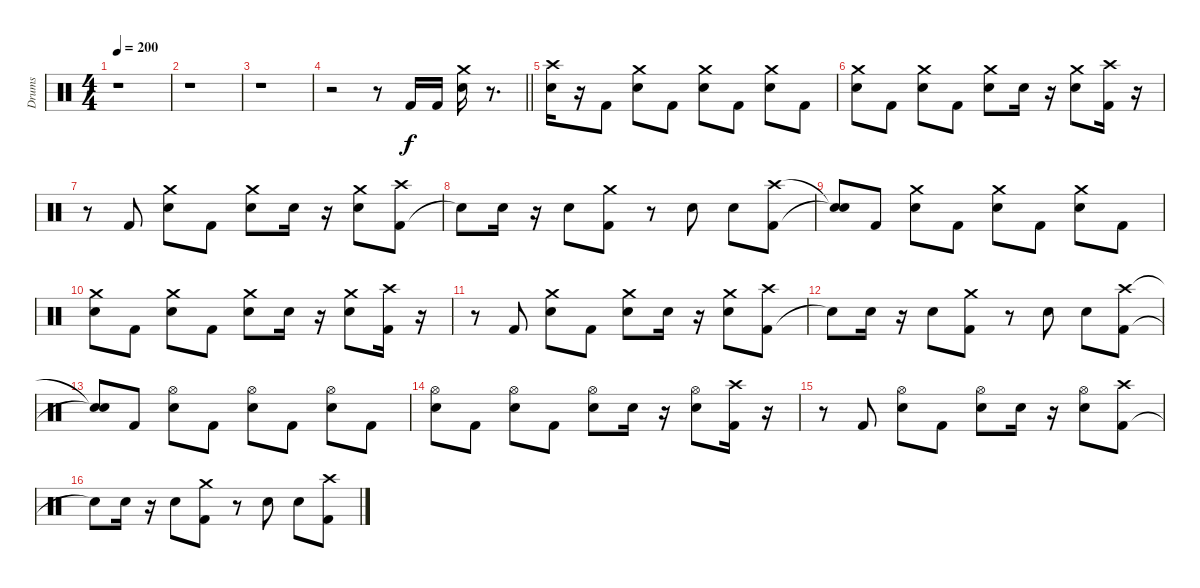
\track ("Drums" "Drums") {instrument percussion}
\staff {score}
\articulation defaults
\ts (4 4)
\tempo 200
\clef neutral
\ks c
r.1{dy f} |
r.1 |
r.1 |
\barLineRight lightlight
r.2 r.8 "Kick (hit) 2".16 "Kick (hit) 2".16 ("Snare (hit) 2" "Crash medium (hit)").16 r.8{d} |
\section ("" " ")
("Snare (hit) 2" "Crash high (hit)").16 r.16 "Kick (hit) 2".8 ("Snare (hit) 2" "Crash medium (hit)").8 "Kick (hit) 2".8 ("Snare (hit) 2" "Crash medium (hit)").8 "Kick (hit) 2".8 ("Snare (hit) 2" "Crash medium (hit)").8 "Kick (hit) 2".8 |
("Snare (hit) 2" "Crash medium (hit)").8 "Kick (hit) 2".8 ("Snare (hit) 2" "Crash medium (hit)").8 "Kick (hit) 2".8 ("Snare (hit) 2" "Crash medium (hit)").8 "Snare (hit) 2".16 r.16 ("Snare (hit) 2" "Crash medium (hit)").8 ("Kick (hit) 2" "Crash high (hit)").16 r.16 |
r.8 "Kick (hit) 2".8 ("Snare (hit) 2" "Crash medium (hit)").8 "Kick (hit) 2".8 ("Snare (hit) 2" "Crash medium (hit)").8 "Snare (hit) 2".16 r.16 ("Snare (hit) 2" "Crash medium (hit)").8 ("Kick (hit) 2" "Crash high (hit)").8 |
"Snare (hit)"{t}.8 "Snare (hit) 2".16 r.16 "Snare (hit) 2".8 ("Kick (hit) 2" "Crash medium (hit)").8 r.8 "Snare (hit) 2".8 "Snare (hit) 2".8 ("Kick (hit) 2" "Crash high (hit)").8 |
("Snare (hit)"{t} "Snare (hit)"{t}).8 "Kick (hit) 2".8 ("Snare (hit) 2" "Crash medium (hit)").8 "Kick (hit) 2".8 ("Snare (hit) 2" "Crash medium (hit)").8 "Kick (hit) 2".8 ("Snare (hit) 2" "Crash medium (hit)").8 "Kick (hit) 2".8 |
("Snare (hit) 2" "Crash medium (hit)").8 "Kick (hit) 2".8 ("Snare (hit) 2" "Crash medium (hit)").8 "Kick (hit) 2".8 ("Snare (hit) 2" "Crash medium (hit)").8 "Snare (hit) 2".16 r.16 ("Snare (hit) 2" "Crash medium (hit)").8 ("Kick (hit) 2" "Crash high (hit)").16 r.16 |
r.8 "Kick (hit) 2".8 ("Snare (hit) 2" "Crash medium (hit)").8 "Kick (hit) 2".8 ("Snare (hit) 2" "Crash medium (hit)").8 "Snare (hit) 2".16 r.16 ("Snare (hit) 2" "Crash medium (hit)").8 ("Kick (hit) 2" "Crash high (hit)").8 |
"Snare (hit)"{t}.8 "Snare (hit) 2".16 r.16 "Snare (hit) 2".8 ("Kick (hit) 2" "Crash medium (hit)").8 r.8 "Snare (hit) 2".8 "Snare (hit) 2".8 ("Kick (hit) 2" "Crash high (hit)").8 |
("Snare (hit)"{t} "Snare (hit)"{t}).8 "Kick (hit) 2".8 ("Snare (hit) 2" "Hi-Hat (open)").8 "Kick (hit) 2".8 ("Snare (hit) 2" "Hi-Hat (open)").8 "Kick (hit) 2".8 ("Snare (hit) 2" "Hi-Hat (open)").8 "Kick (hit) 2".8 |
("Snare (hit) 2" "Hi-Hat (open)").8 "Kick (hit) 2".8 ("Snare (hit) 2" "Hi-Hat (open)").8 "Kick (hit) 2".8 ("Snare (hit) 2" "Hi-Hat (open)").8 "Snare (hit) 2".16 r.16 ("Snare (hit) 2" "Hi-Hat (open)").8 ("Kick (hit) 2" "Crash high (hit)").16 r.16 |
r.8 "Kick (hit) 2".8 ("Snare (hit) 2" "Hi-Hat (open)").8 "Kick (hit) 2".8 ("Snare (hit) 2" "Hi-Hat (open)").8 "Snare (hit) 2".16 r.16 ("Snare (hit) 2" "Hi-Hat (open)").8 ("Kick (hit) 2" "Crash high (hit)").8 |
"Snare (hit)"{t}.8 "Snare (hit) 2".16 r.16 "Snare (hit) 2".8 ("Kick (hit) 2" "Crash medium (hit)").8 r.8 "Snare (hit) 2".8 "Snare (hit) 2".8 ("Kick (hit) 2" "Crash high (hit)").8
